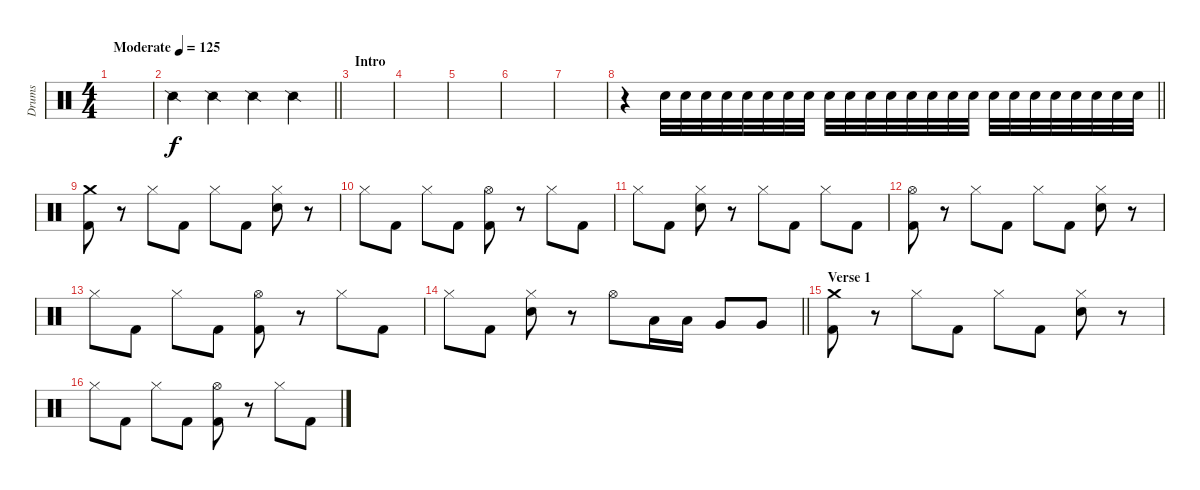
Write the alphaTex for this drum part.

\track ("Drums" "Drums") {instrument percussion}
\staff {score}
\articulation defaults
\ts (4 4)
\tempo (125 "Moderate")
\clef neutral
\ks c
|
\barLineRight lightlight "Snare (side stick) 2".4 "Snare (side stick) 2".4 "Snare (side stick) 2".4 "Snare (side stick) 2".4
|
\section ("" "Intro")
|
|
|
|
|
\barLineRight lightlight
r.4 "Electric Snare (hit)".32{volume 10} "Electric Snare (hit)".32{volume 8} "Electric Snare (hit)".32 "Electric Snare (hit)".32 "Electric Snare (hit)".32 "Electric Snare (hit)".32 "Electric Snare (hit)".32 "Electric Snare (hit)".32 "Electric Snare (hit)".32 "Electric Snare (hit)".32 "Electric Snare (hit)".32 "Electric Snare (hit)".32 "Electric Snare (hit)".32 "Electric Snare (hit)".32 "Electric Snare (hit)".32 "Electric Snare (hit)".32 "Electric Snare (hit)".32 "Electric Snare (hit)".32 "Electric Snare (hit)".32 "Electric Snare (hit)".32 "Electric Snare (hit)".32 "Electric Snare (hit)".32 "Electric Snare (hit)".32 "Electric Snare (hit)".32 |
\section ("" "")
("Crash medium (hit)" "Kick (hit) 2").8{volume 16} r.8 "Hi-Hat (closed)".8 "Kick (hit) 2".8 "Hi-Hat (closed)".8 "Kick (hit) 2".8 ("Hi-Hat (closed)" "Electric Snare (hit)").8 r.8 |
"Hi-Hat (closed)".8 "Kick (hit) 2".8 "Hi-Hat (closed)".8 "Kick (hit) 2".8 ("Hi-Hat (open)" "Kick (hit) 2").8 r.8 "Hi-Hat (closed)".8 "Kick (hit) 2".8 |
"Hi-Hat (closed)".8 "Kick (hit) 2".8 ("Hi-Hat (closed)" "Electric Snare (hit)").8 r.8 "Hi-Hat (closed)".8 "Kick (hit) 2".8 "Hi-Hat (closed)".8 "Kick (hit) 2".8 |
("Hi-Hat (open)" "Kick (hit) 2").8 r.8 "Hi-Hat (closed)".8 "Kick (hit) 2".8 "Hi-Hat (closed)".8 "Kick (hit) 2".8 ("Hi-Hat (closed)" "Electric Snare (hit)").8 r.8 |
"Hi-Hat (closed)".8 "Kick (hit) 2".8 "Hi-Hat (closed)".8 "Kick (hit) 2".8 ("Hi-Hat (open)" "Kick (hit) 2").8 r.8 "Hi-Hat (closed)".8 "Kick (hit) 2".8 |
\barLineRight lightlight "Hi-Hat (closed)".8 "Kick (hit) 2".8
("Hi-Hat (closed)" "Electric Snare (hit)").8 r.8 "Hi-Hat (open)".8 "Low Tom (hit)".16 "Low Tom (hit)".16 "Very Low Tom (hit)".8 "Very Low Tom (hit)".8 |
\section ("" "Verse 1")
("Crash medium (hit)" "Kick (hit) 2").8{volume 16} r.8 "Hi-Hat (closed)".8 "Kick (hit) 2".8 "Hi-Hat (closed)".8 "Kick (hit) 2".8 ("Hi-Hat (closed)" "Electric Snare (hit)").8 r.8 |
"Hi-Hat (closed)".8 "Kick (hit) 2".8 "Hi-Hat (closed)".8 "Kick (hit) 2".8 ("Hi-Hat (open)" "Kick (hit) 2").8 r.8 "Hi-Hat (closed)".8 "Kick (hit) 2".8
